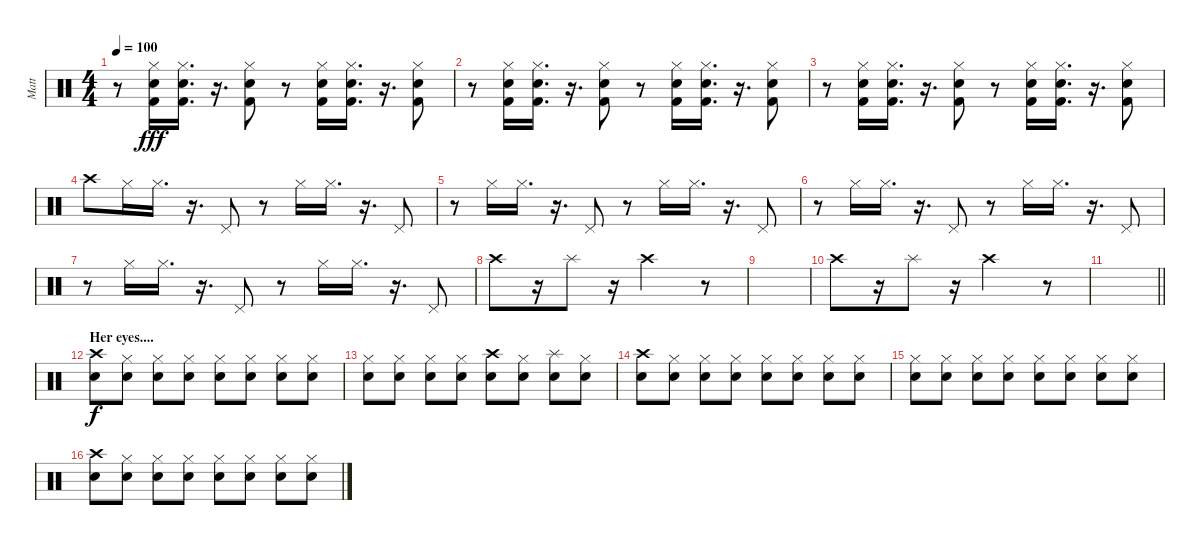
\track ("Matt" "Matt") {instrument percussion}
\staff {score}
\articulation defaults
\ts (4 4)
\tempo 100
\clef neutral
\ks c
r.8{dy fff} ("Hi-Hat (closed)" "Kick (hit) 2" "Electric Snare (hit)").16 ("Hi-Hat (closed)" "Kick (hit) 2" "Electric Snare (hit)").16{d} r.16{d} ("Hi-Hat (closed)" "Kick (hit) 2" "Electric Snare (hit)").8 r.8 ("Hi-Hat (closed)" "Kick (hit) 2" "Electric Snare (hit)").16 ("Hi-Hat (closed)" "Kick (hit) 2" "Electric Snare (hit)").16{d} r.16{d} ("Hi-Hat (closed)" "Kick (hit) 2" "Electric Snare (hit)").8 |
r.8 ("Hi-Hat (closed)" "Kick (hit) 2" "Electric Snare (hit)").16 ("Hi-Hat (closed)" "Kick (hit) 2" "Electric Snare (hit)").16{d} r.16{d} ("Hi-Hat (closed)" "Kick (hit) 2" "Electric Snare (hit)").8 r.8 ("Hi-Hat (closed)" "Kick (hit) 2" "Electric Snare (hit)").16 ("Hi-Hat (closed)" "Kick (hit) 2" "Electric Snare (hit)").16{d} r.16{d} ("Hi-Hat (closed)" "Kick (hit) 2" "Electric Snare (hit)").8 |
r.8 ("Hi-Hat (closed)" "Kick (hit) 2" "Electric Snare (hit)").16 ("Hi-Hat (closed)" "Kick (hit) 2" "Electric Snare (hit)").16{d} r.16{d} ("Hi-Hat (closed)" "Kick (hit) 2" "Electric Snare (hit)").8 r.8 ("Hi-Hat (closed)" "Kick (hit) 2" "Electric Snare (hit)").16 ("Hi-Hat (closed)" "Kick (hit) 2" "Electric Snare (hit)").16{d} r.16{d} ("Hi-Hat (closed)" "Kick (hit) 2" "Electric Snare (hit)").8 |
"Crash high (hit)".8 "Hi-Hat (closed)".16 "Hi-Hat (closed)".16{d} r.16{d} "Pedal Hi-Hat (hit)".8 r.8 "Hi-Hat (closed)".16 "Hi-Hat (closed)".16{d} r.16{d} "Pedal Hi-Hat (hit)".8 |
r.8 "Hi-Hat (closed)".16 "Hi-Hat (closed)".16{d} r.16{d} "Pedal Hi-Hat (hit)".8 r.8 "Hi-Hat (closed)".16 "Hi-Hat (closed)".16{d} r.16{d} "Pedal Hi-Hat (hit)".8 |
r.8 "Hi-Hat (closed)".16 "Hi-Hat (closed)".16{d} r.16{d} "Pedal Hi-Hat (hit)".8 r.8 "Hi-Hat (closed)".16 "Hi-Hat (closed)".16{d} r.16{d} "Pedal Hi-Hat (hit)".8 |
r.8 "Hi-Hat (closed)".16 "Hi-Hat (closed)".16{d} r.16{d} "Pedal Hi-Hat (hit)".8 r.8 "Hi-Hat (closed)".16 "Hi-Hat (closed)".16{d} r.16{d} "Pedal Hi-Hat (hit)".8 |
"Crash high (hit)".8 r.16 "Splash (hit)".8 r.16 "Crash high (hit)".2 r.8 |
|
"Crash high (hit)".8 r.16 "Splash (hit)".8 r.16 "Crash high (hit)".2 r.8 |
\barLineRight lightlight
|
\section ("" "Her eyes....")
("Crash high (hit)" "Electric Snare (hit)").8{dy f volume 16} ("Hi-Hat (closed)" "Electric Snare (hit)").8 ("Hi-Hat (closed)" "Electric Snare (hit)").8 ("Hi-Hat (closed)" "Electric Snare (hit)").8 ("Hi-Hat (closed)" "Electric Snare (hit)").8 ("Hi-Hat (closed)" "Electric Snare (hit)").8 ("Hi-Hat (closed)" "Electric Snare (hit)").8 ("Hi-Hat (closed)" "Electric Snare (hit)").8 |
("Hi-Hat (closed)" "Electric Snare (hit)").8 ("Hi-Hat (closed)" "Electric Snare (hit)").8 ("Hi-Hat (closed)" "Electric Snare (hit)").8 ("Hi-Hat (closed)" "Electric Snare (hit)").8 ("Crash high (hit)" "Electric Snare (hit)").8 ("Hi-Hat (closed)" "Electric Snare (hit)").8 ("Splash (hit)" "Electric Snare (hit)").8 ("Hi-Hat (closed)" "Electric Snare (hit)").8 |
("Crash high (hit)" "Electric Snare (hit)").8 ("Hi-Hat (closed)" "Electric Snare (hit)").8 ("Hi-Hat (closed)" "Electric Snare (hit)").8 ("Hi-Hat (closed)" "Electric Snare (hit)").8 ("Hi-Hat (closed)" "Electric Snare (hit)").8 ("Hi-Hat (closed)" "Electric Snare (hit)").8 ("Hi-Hat (closed)" "Electric Snare (hit)").8 ("Hi-Hat (closed)" "Electric Snare (hit)").8 |
("Hi-Hat (closed)" "Electric Snare (hit)").8 ("Hi-Hat (closed)" "Electric Snare (hit)").8 ("Hi-Hat (closed)" "Electric Snare (hit)").8 ("Hi-Hat (closed)" "Electric Snare (hit)").8 ("Hi-Hat (closed)" "Electric Snare (hit)").8 ("Hi-Hat (closed)" "Electric Snare (hit)").8 ("Hi-Hat (closed)" "Electric Snare (hit)").8 ("Hi-Hat (closed)" "Electric Snare (hit)").8 |
("Crash high (hit)" "Electric Snare (hit)").8 ("Hi-Hat (closed)" "Electric Snare (hit)").8 ("Hi-Hat (closed)" "Electric Snare (hit)").8 ("Hi-Hat (closed)" "Electric Snare (hit)").8 ("Hi-Hat (closed)" "Electric Snare (hit)").8 ("Hi-Hat (closed)" "Electric Snare (hit)").8 ("Hi-Hat (closed)" "Electric Snare (hit)").8 ("Hi-Hat (closed)" "Electric Snare (hit)").8
